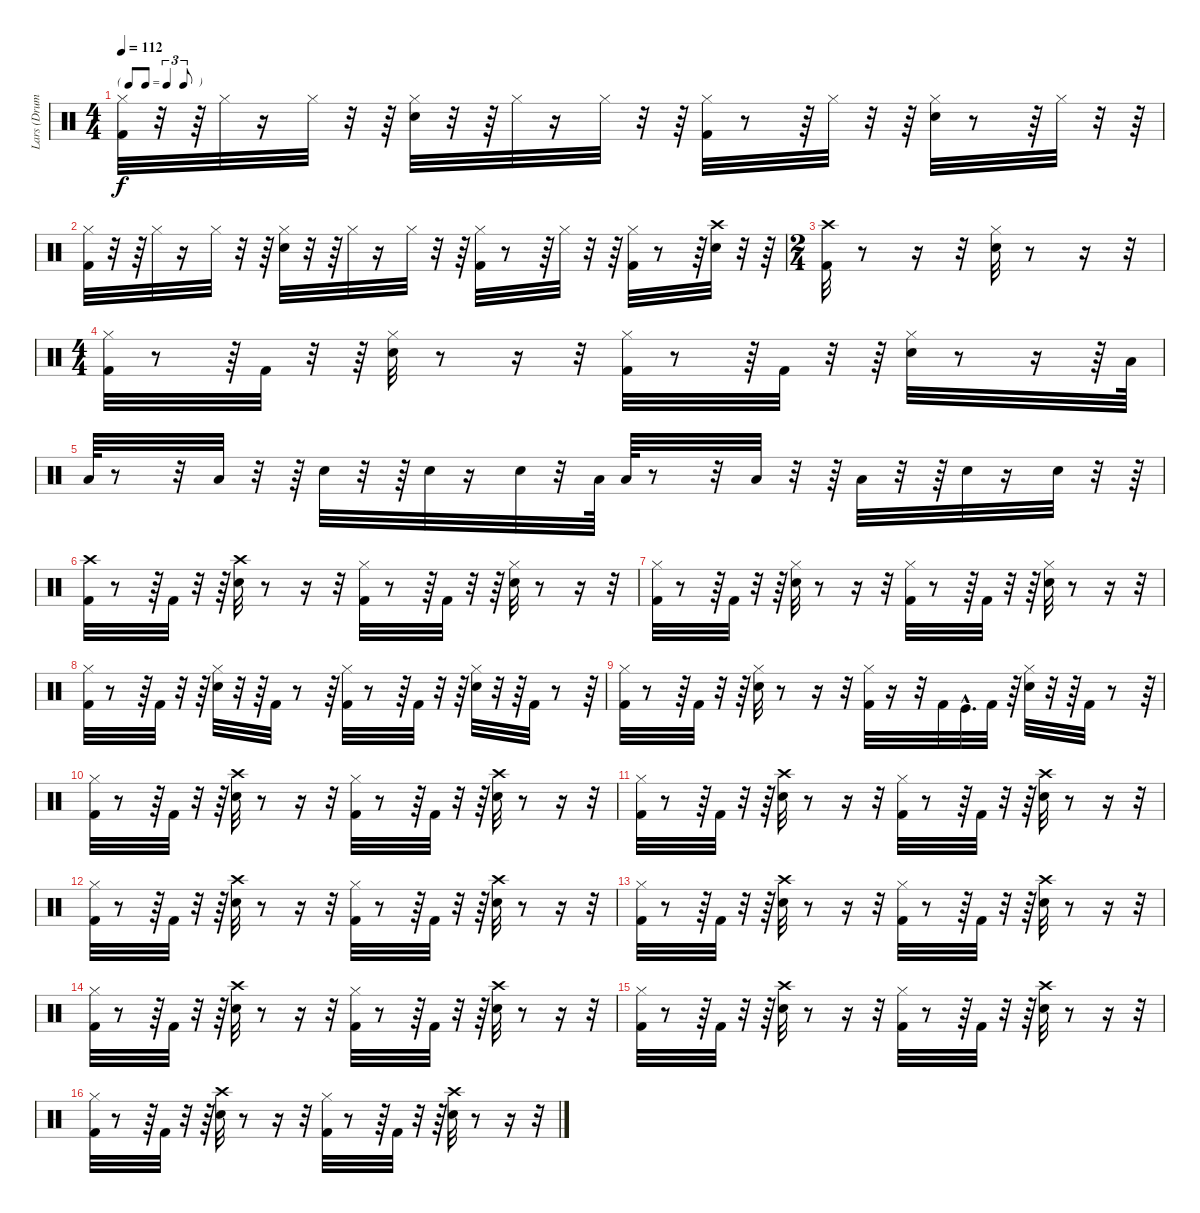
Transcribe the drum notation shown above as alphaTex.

\track ("Lars (Drums)" "Lars (Drum") {instrument percussion}
\staff {score}
\articulation defaults
\ts (4 4)
\tf triplet8th
\tempo 112
\clef neutral
\ks c
("Hi-Hat (closed)" "Kick (hit) 2").32{dy f} r.32 r.64 "Hi-Hat (closed)".32 r.16 "Hi-Hat (closed)".32 r.32 r.64 ("Hi-Hat (closed)" "Snare (hit) 2").32 r.32 r.64 "Hi-Hat (closed)".32 r.16 "Hi-Hat (closed)".32 r.32 r.64 ("Hi-Hat (closed)" "Kick (hit) 2").32 r.8 r.64 "Hi-Hat (closed)".32 r.32 r.64 ("Snare (hit) 2" "Hi-Hat (closed)").32 r.8 r.64 "Hi-Hat (closed)".32 r.32 r.64 |
("Hi-Hat (closed)" "Kick (hit) 2").32 r.32 r.64 "Hi-Hat (closed)".32 r.16 "Hi-Hat (closed)".32 r.32 r.64 ("Hi-Hat (closed)" "Snare (hit) 2").32 r.32 r.64 "Hi-Hat (closed)".32 r.16 "Hi-Hat (closed)".32 r.32 r.64 ("Hi-Hat (closed)" "Kick (hit) 2").32 r.8 r.64 "Hi-Hat (closed)".32 r.32 r.64 ("Kick (hit) 2" "Hi-Hat (closed)").32 r.8 r.64 ("Snare (hit) 2" "Crash high (hit)").32 r.32 r.64 |
\ts (2 4)
("Crash high (hit)" "Kick (hit) 2").32 r.8 r.16 r.32 ("Hi-Hat (closed)" "Snare (hit) 2").32 r.8 r.16 r.32 |
\ts (4 4)
("Hi-Hat (closed)" "Kick (hit) 2").32 r.8 r.64 "Kick (hit) 2".32 r.32 r.64 ("Hi-Hat (closed)" "Snare (hit) 2").32 r.8 r.16 r.32 ("Hi-Hat (closed)" "Kick (hit) 2").32 r.8 r.64 "Kick (hit) 2".32 r.32 r.64 ("Hi-Hat (closed)" "Snare (hit) 2").32 r.8 r.16 r.64 "Low Floor Tom (hit)".64 |
"Low Floor Tom (hit)".64 r.8 r.32 "Low Floor Tom (hit)".32 r.32 r.64 "Snare (hit) 2".32 r.32 r.64 "Snare (hit) 2".32 r.16 "Snare (hit) 2".32 r.32 "Low Floor Tom (hit)".64 "Low Floor Tom (hit)".64 r.8 r.32 "Low Floor Tom (hit)".32 r.32 r.64 "Low Floor Tom (hit)".32 r.32 r.64 "Snare (hit) 2".32 r.16 "Snare (hit) 2".32 r.32 r.64 |
("Crash high (hit)" "Kick (hit) 2").32 r.8 r.64 "Kick (hit) 2".32 r.32 r.64 ("Crash high (hit)" "Snare (hit) 2").32 r.8 r.16 r.32 ("Hi-Hat (closed)" "Kick (hit) 2").32 r.8 r.64 "Kick (hit) 2".32 r.32 r.64 ("Snare (hit) 2" "Hi-Hat (closed)").32 r.8 r.16 r.32 |
("Hi-Hat (closed)" "Kick (hit) 2").32 r.8 r.64 "Kick (hit) 2".32 r.32 r.64 ("Hi-Hat (closed)" "Snare (hit) 2").32 r.8 r.16 r.32 ("Hi-Hat (closed)" "Kick (hit) 2").32 r.8 r.64 "Kick (hit) 2".32 r.32 r.64 ("Snare (hit) 2" "Hi-Hat (closed)").32 r.8 r.16 r.32 |
("Kick (hit) 2" "Hi-Hat (closed)").32 r.8 r.64 "Kick (hit) 2".32 r.32 r.64 ("Hi-Hat (closed)" "Snare (hit) 2").32 r.32 r.64 "Kick (hit) 2".32 r.8 r.64 ("Hi-Hat (closed)" "Kick (hit) 2").32 r.8 r.64 "Kick (hit) 2".32 r.32 r.64 ("Snare (hit) 2" "Hi-Hat (closed)").32 r.32 r.64 "Kick (hit) 2".32 r.8 r.64 |
("Hi-Hat (closed)" "Kick (hit) 2").32 r.8 r.64 "Kick (hit) 2".32 r.32 r.64 ("Hi-Hat (closed)" "Snare (hit) 2").32 r.8 r.16 r.32 ("Hi-Hat (closed)" "Kick (hit) 2").32 r.16 r.32 "Kick (hit) 2".32 "Kick (hit)"{hac}.32{d} "Kick (hit) 2".32 r.64 ("Snare (hit) 2" "Hi-Hat (closed)").32 r.32 r.64 "Kick (hit) 2".32 r.8 r.64 |
("Hi-Hat (closed)" "Kick (hit) 2").32 r.8 r.64 "Kick (hit) 2".32 r.32 r.64 ("Crash high (hit)" "Snare (hit) 2").32 r.8 r.16 r.32 ("Hi-Hat (closed)" "Kick (hit) 2").32 r.8 r.64 "Kick (hit) 2".32 r.32 r.64 ("Snare (hit) 2" "Crash high (hit)").32 r.8 r.16 r.32 |
("Hi-Hat (closed)" "Kick (hit) 2").32 r.8 r.64 "Kick (hit) 2".32 r.32 r.64 ("Crash high (hit)" "Snare (hit) 2").32 r.8 r.16 r.32 ("Hi-Hat (closed)" "Kick (hit) 2").32 r.8 r.64 "Kick (hit) 2".32 r.32 r.64 ("Snare (hit) 2" "Crash high (hit)").32 r.8 r.16 r.32 |
("Hi-Hat (closed)" "Kick (hit) 2").32 r.8 r.64 "Kick (hit) 2".32 r.32 r.64 ("Crash high (hit)" "Snare (hit) 2").32 r.8 r.16 r.32 ("Hi-Hat (closed)" "Kick (hit) 2").32 r.8 r.64 "Kick (hit) 2".32 r.32 r.64 ("Snare (hit) 2" "Crash high (hit)").32 r.8 r.16 r.32 |
("Hi-Hat (closed)" "Kick (hit) 2").32 r.8 r.64 "Kick (hit) 2".32 r.32 r.64 ("Crash high (hit)" "Snare (hit) 2").32 r.8 r.16 r.32 ("Hi-Hat (closed)" "Kick (hit) 2").32 r.8 r.64 "Kick (hit) 2".32 r.32 r.64 ("Snare (hit) 2" "Crash high (hit)").32 r.8 r.16 r.32 |
("Hi-Hat (closed)" "Kick (hit) 2").32 r.8 r.64 "Kick (hit) 2".32 r.32 r.64 ("Crash high (hit)" "Snare (hit) 2").32 r.8 r.16 r.32 ("Hi-Hat (closed)" "Kick (hit) 2").32 r.8 r.64 "Kick (hit) 2".32 r.32 r.64 ("Snare (hit) 2" "Crash high (hit)").32 r.8 r.16 r.32 |
("Hi-Hat (closed)" "Kick (hit) 2").32 r.8 r.64 "Kick (hit) 2".32 r.32 r.64 ("Crash high (hit)" "Snare (hit) 2").32 r.8 r.16 r.32 ("Hi-Hat (closed)" "Kick (hit) 2").32 r.8 r.64 "Kick (hit) 2".32 r.32 r.64 ("Snare (hit) 2" "Crash high (hit)").32 r.8 r.16 r.32 |
("Hi-Hat (closed)" "Kick (hit) 2").32 r.8 r.64 "Kick (hit) 2".32 r.32 r.64 ("Crash high (hit)" "Snare (hit) 2").32 r.8 r.16 r.32 ("Hi-Hat (closed)" "Kick (hit) 2").32 r.8 r.64 "Kick (hit) 2".32 r.32 r.64 ("Snare (hit) 2" "Crash high (hit)").32 r.8 r.16 r.32
